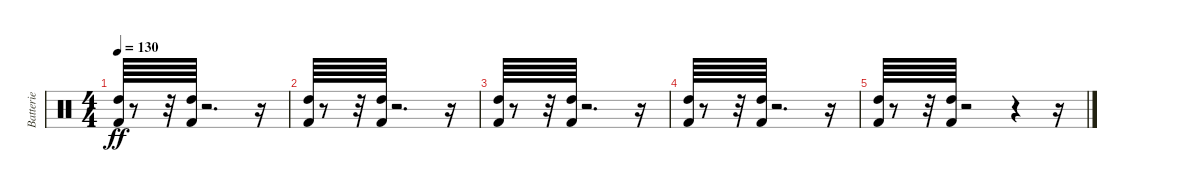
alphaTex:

\track ("Batterie" "Batterie") {instrument percussion}
\staff {score}
\articulation defaults
\ts (4 4)
\tempo 130
\clef neutral
\ks c
("Kick (hit) 2" "High Tom (hit)").64{dy ff volume 16} r.8 r.32 ("High Tom (hit)" "Kick (hit) 2").64{volume 16} r.2{d} r.16 |
("High Tom (hit)" "Kick (hit) 2").64{volume 14} r.8 r.32 ("High Tom (hit)" "Kick (hit) 2").64{volume 13} r.2{d} r.16 |
("Kick (hit) 2" "High Tom (hit)").64{volume 12} r.8 r.32 ("High Tom (hit)" "Kick (hit) 2").64{volume 11} r.2{d} r.16 |
("Kick (hit) 2" "High Tom (hit)").64{volume 9} r.8 r.32 ("High Tom (hit)" "Kick (hit) 2").64{volume 8} r.2{d} r.16 |
("High Tom (hit)" "Kick (hit) 2").64{volume 6} r.8 r.32 ("High Tom (hit)" "Kick (hit) 2").64{volume 6} r.2 r.4 r.16
